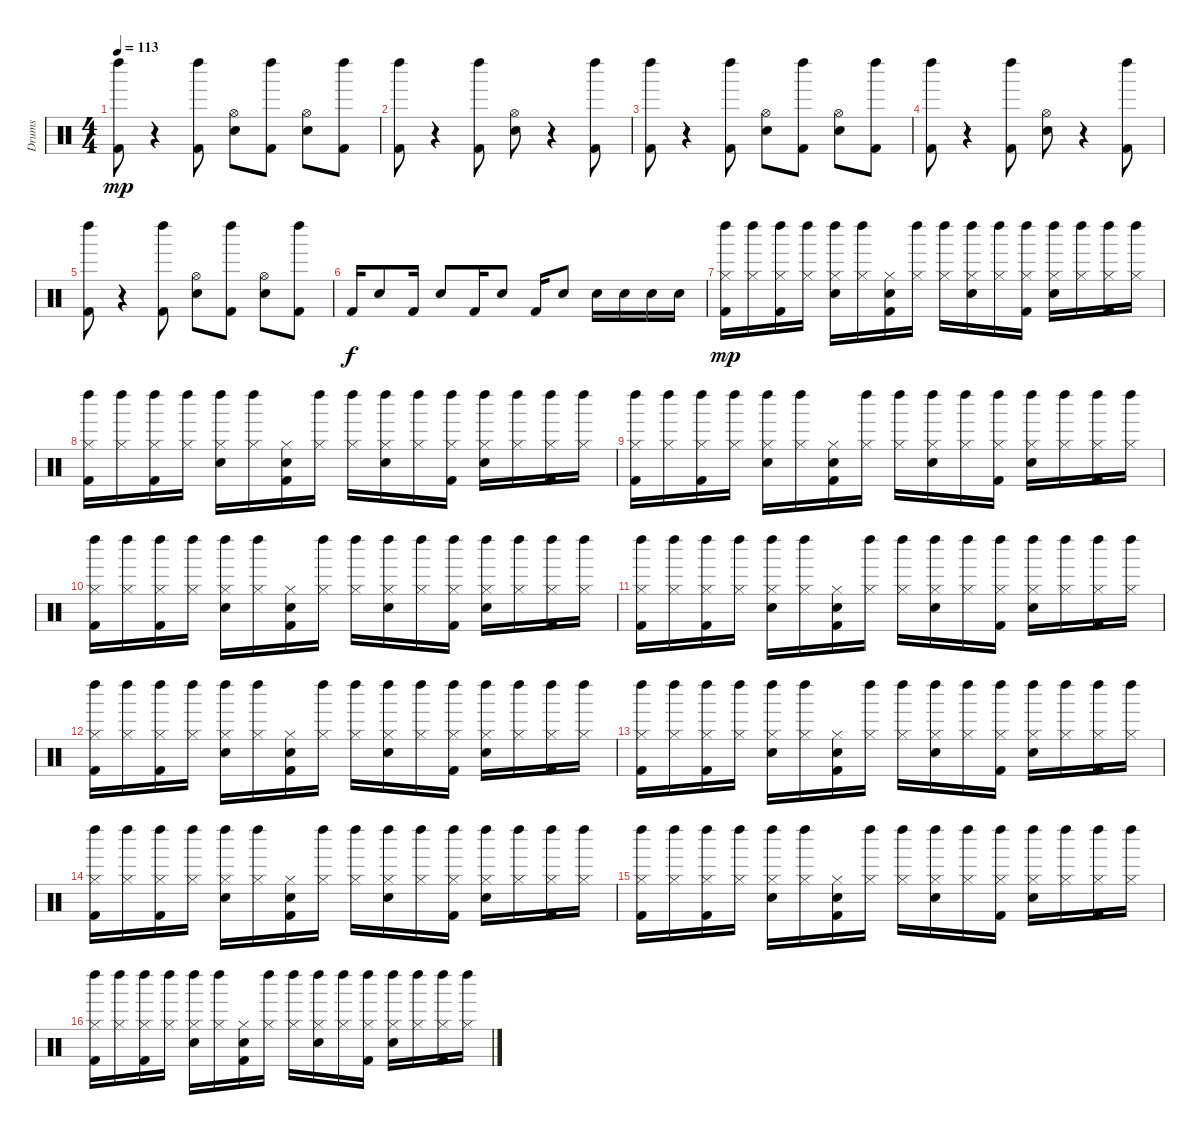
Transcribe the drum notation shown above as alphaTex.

\track ("Drums" "Drums") {instrument percussion}
\staff {score}
\articulation defaults
\ts (4 4)
\tempo 113
\clef neutral
\ks c
("Left Maraca (hit)" "Kick (hit) 2").8{dy mp} r.4 ("Left Maraca (hit)" "Kick (hit) 2").8 ("Hi-Hat (open)" "Snare (hit) 2").8 ("Left Maraca (hit)" "Kick (hit) 2").8 ("Hi-Hat (open)" "Snare (hit) 2").8 ("Left Maraca (hit)" "Kick (hit) 2").8 |
("Left Maraca (hit)" "Kick (hit) 2").8 r.4 ("Left Maraca (hit)" "Kick (hit) 2").8 ("Hi-Hat (open)" "Snare (hit) 2").8 r.4 ("Left Maraca (hit)" "Kick (hit) 2").8 |
("Left Maraca (hit)" "Kick (hit) 2").8 r.4 ("Left Maraca (hit)" "Kick (hit) 2").8 ("Hi-Hat (open)" "Snare (hit) 2").8 ("Left Maraca (hit)" "Kick (hit) 2").8 ("Hi-Hat (open)" "Snare (hit) 2").8 ("Left Maraca (hit)" "Kick (hit) 2").8 |
("Left Maraca (hit)" "Kick (hit) 2").8 r.4 ("Left Maraca (hit)" "Kick (hit) 2").8 ("Hi-Hat (open)" "Snare (hit) 2").8 r.4 ("Left Maraca (hit)" "Kick (hit) 2").8 |
("Left Maraca (hit)" "Kick (hit) 2").8 r.4 ("Left Maraca (hit)" "Kick (hit) 2").8 ("Hi-Hat (open)" "Snare (hit) 2").8 ("Left Maraca (hit)" "Kick (hit) 2").8 ("Hi-Hat (open)" "Snare (hit) 2").8 ("Left Maraca (hit)" "Kick (hit) 2").8 |
"Kick (hit) 2".16{dy f} "Snare (hit) 2".8 "Kick (hit) 2".16 "Snare (hit) 2".8 "Kick (hit) 2".16 "Snare (hit) 2".8 "Kick (hit) 2".16 "Snare (hit) 2".8 "Snare (hit) 2".16 "Snare (hit) 2".16 "Snare (hit) 2".16 "Snare (hit) 2".16 |
("Hi-Hat (closed)" "Left Maraca (hit)" "Kick (hit) 2").16{dy mp} ("Hi-Hat (closed)" "Left Maraca (hit)").16 ("Hi-Hat (closed)" "Left Maraca (hit)" "Kick (hit) 2").16 ("Hi-Hat (closed)" "Left Maraca (hit)").16 ("Hi-Hat (closed)" "Left Maraca (hit)" "Snare (hit) 2").16 ("Hi-Hat (closed)" "Left Maraca (hit)").16 ("Hi-Hat (closed)" "Snare (hit)" "Kick (hit) 2").16 ("Hi-Hat (closed)" "Left Maraca (hit)").16 ("Hi-Hat (closed)" "Left Maraca (hit)").16 ("Hi-Hat (closed)" "Left Maraca (hit)" "Snare (hit) 2").16 ("Hi-Hat (closed)" "Left Maraca (hit)").16 ("Hi-Hat (closed)" "Left Maraca (hit)" "Kick (hit) 2").16 ("Hi-Hat (closed)" "Left Maraca (hit)" "Snare (hit) 2").16 ("Hi-Hat (closed)" "Left Maraca (hit)").16 ("Hi-Hat (closed)" "Left Maraca (hit)" "Kick (hit) 2").16 ("Hi-Hat (closed)" "Left Maraca (hit)").16 |
("Hi-Hat (closed)" "Left Maraca (hit)" "Kick (hit) 2").16 ("Hi-Hat (closed)" "Left Maraca (hit)").16 ("Hi-Hat (closed)" "Left Maraca (hit)" "Kick (hit) 2").16 ("Hi-Hat (closed)" "Left Maraca (hit)").16 ("Hi-Hat (closed)" "Left Maraca (hit)" "Snare (hit) 2").16 ("Hi-Hat (closed)" "Left Maraca (hit)").16 ("Hi-Hat (closed)" "Snare (hit)" "Kick (hit) 2").16 ("Hi-Hat (closed)" "Left Maraca (hit)").16 ("Hi-Hat (closed)" "Left Maraca (hit)").16 ("Hi-Hat (closed)" "Left Maraca (hit)" "Snare (hit) 2").16 ("Hi-Hat (closed)" "Left Maraca (hit)").16 ("Hi-Hat (closed)" "Left Maraca (hit)" "Kick (hit) 2").16 ("Hi-Hat (closed)" "Left Maraca (hit)" "Snare (hit) 2").16 ("Hi-Hat (closed)" "Left Maraca (hit)").16 ("Hi-Hat (closed)" "Left Maraca (hit)" "Kick (hit) 2").16 ("Hi-Hat (closed)" "Left Maraca (hit)").16 |
("Hi-Hat (closed)" "Left Maraca (hit)" "Kick (hit) 2").16 ("Hi-Hat (closed)" "Left Maraca (hit)").16 ("Hi-Hat (closed)" "Left Maraca (hit)" "Kick (hit) 2").16 ("Hi-Hat (closed)" "Left Maraca (hit)").16 ("Hi-Hat (closed)" "Left Maraca (hit)" "Snare (hit) 2").16 ("Hi-Hat (closed)" "Left Maraca (hit)").16 ("Hi-Hat (closed)" "Snare (hit)" "Kick (hit) 2").16 ("Hi-Hat (closed)" "Left Maraca (hit)").16 ("Hi-Hat (closed)" "Left Maraca (hit)").16 ("Hi-Hat (closed)" "Left Maraca (hit)" "Snare (hit) 2").16 ("Hi-Hat (closed)" "Left Maraca (hit)").16 ("Hi-Hat (closed)" "Left Maraca (hit)" "Kick (hit) 2").16 ("Hi-Hat (closed)" "Left Maraca (hit)" "Snare (hit) 2").16 ("Hi-Hat (closed)" "Left Maraca (hit)").16 ("Hi-Hat (closed)" "Left Maraca (hit)" "Kick (hit) 2").16 ("Hi-Hat (closed)" "Left Maraca (hit)").16 |
("Hi-Hat (closed)" "Left Maraca (hit)" "Kick (hit) 2").16 ("Hi-Hat (closed)" "Left Maraca (hit)").16 ("Hi-Hat (closed)" "Left Maraca (hit)" "Kick (hit) 2").16 ("Hi-Hat (closed)" "Left Maraca (hit)").16 ("Hi-Hat (closed)" "Left Maraca (hit)" "Snare (hit) 2").16 ("Hi-Hat (closed)" "Left Maraca (hit)").16 ("Hi-Hat (closed)" "Snare (hit)" "Kick (hit) 2").16 ("Hi-Hat (closed)" "Left Maraca (hit)").16 ("Hi-Hat (closed)" "Left Maraca (hit)").16 ("Hi-Hat (closed)" "Left Maraca (hit)" "Snare (hit) 2").16 ("Hi-Hat (closed)" "Left Maraca (hit)").16 ("Hi-Hat (closed)" "Left Maraca (hit)" "Kick (hit) 2").16 ("Hi-Hat (closed)" "Left Maraca (hit)" "Snare (hit) 2").16 ("Hi-Hat (closed)" "Left Maraca (hit)").16 ("Hi-Hat (closed)" "Left Maraca (hit)" "Kick (hit) 2").16 ("Hi-Hat (closed)" "Left Maraca (hit)").16 |
("Hi-Hat (closed)" "Left Maraca (hit)" "Kick (hit) 2").16 ("Hi-Hat (closed)" "Left Maraca (hit)").16 ("Hi-Hat (closed)" "Left Maraca (hit)" "Kick (hit) 2").16 ("Hi-Hat (closed)" "Left Maraca (hit)").16 ("Hi-Hat (closed)" "Left Maraca (hit)" "Snare (hit) 2").16 ("Hi-Hat (closed)" "Left Maraca (hit)").16 ("Hi-Hat (closed)" "Snare (hit)" "Kick (hit) 2").16 ("Hi-Hat (closed)" "Left Maraca (hit)").16 ("Hi-Hat (closed)" "Left Maraca (hit)").16 ("Hi-Hat (closed)" "Left Maraca (hit)" "Snare (hit) 2").16 ("Hi-Hat (closed)" "Left Maraca (hit)").16 ("Hi-Hat (closed)" "Left Maraca (hit)" "Kick (hit) 2").16 ("Hi-Hat (closed)" "Left Maraca (hit)" "Snare (hit) 2").16 ("Hi-Hat (closed)" "Left Maraca (hit)").16 ("Hi-Hat (closed)" "Left Maraca (hit)" "Kick (hit) 2").16 ("Hi-Hat (closed)" "Left Maraca (hit)").16 |
("Hi-Hat (closed)" "Left Maraca (hit)" "Kick (hit) 2").16 ("Hi-Hat (closed)" "Left Maraca (hit)").16 ("Hi-Hat (closed)" "Left Maraca (hit)" "Kick (hit) 2").16 ("Hi-Hat (closed)" "Left Maraca (hit)").16 ("Hi-Hat (closed)" "Left Maraca (hit)" "Snare (hit) 2").16 ("Hi-Hat (closed)" "Left Maraca (hit)").16 ("Hi-Hat (closed)" "Snare (hit)" "Kick (hit) 2").16 ("Hi-Hat (closed)" "Left Maraca (hit)").16 ("Hi-Hat (closed)" "Left Maraca (hit)").16 ("Hi-Hat (closed)" "Left Maraca (hit)" "Snare (hit) 2").16 ("Hi-Hat (closed)" "Left Maraca (hit)").16 ("Hi-Hat (closed)" "Left Maraca (hit)" "Kick (hit) 2").16 ("Hi-Hat (closed)" "Left Maraca (hit)" "Snare (hit) 2").16 ("Hi-Hat (closed)" "Left Maraca (hit)").16 ("Hi-Hat (closed)" "Left Maraca (hit)" "Kick (hit) 2").16 ("Hi-Hat (closed)" "Left Maraca (hit)").16 |
("Hi-Hat (closed)" "Left Maraca (hit)" "Kick (hit) 2").16 ("Hi-Hat (closed)" "Left Maraca (hit)").16 ("Hi-Hat (closed)" "Left Maraca (hit)" "Kick (hit) 2").16 ("Hi-Hat (closed)" "Left Maraca (hit)").16 ("Hi-Hat (closed)" "Left Maraca (hit)" "Snare (hit) 2").16 ("Hi-Hat (closed)" "Left Maraca (hit)").16 ("Hi-Hat (closed)" "Snare (hit)" "Kick (hit) 2").16 ("Hi-Hat (closed)" "Left Maraca (hit)").16 ("Hi-Hat (closed)" "Left Maraca (hit)").16 ("Hi-Hat (closed)" "Left Maraca (hit)" "Snare (hit) 2").16 ("Hi-Hat (closed)" "Left Maraca (hit)").16 ("Hi-Hat (closed)" "Left Maraca (hit)" "Kick (hit) 2").16 ("Hi-Hat (closed)" "Left Maraca (hit)" "Snare (hit) 2").16 ("Hi-Hat (closed)" "Left Maraca (hit)").16 ("Hi-Hat (closed)" "Left Maraca (hit)" "Kick (hit) 2").16 ("Hi-Hat (closed)" "Left Maraca (hit)").16 |
("Hi-Hat (closed)" "Left Maraca (hit)" "Kick (hit) 2").16 ("Hi-Hat (closed)" "Left Maraca (hit)").16 ("Hi-Hat (closed)" "Left Maraca (hit)" "Kick (hit) 2").16 ("Hi-Hat (closed)" "Left Maraca (hit)").16 ("Hi-Hat (closed)" "Left Maraca (hit)" "Snare (hit) 2").16 ("Hi-Hat (closed)" "Left Maraca (hit)").16 ("Hi-Hat (closed)" "Snare (hit)" "Kick (hit) 2").16 ("Hi-Hat (closed)" "Left Maraca (hit)").16 ("Hi-Hat (closed)" "Left Maraca (hit)").16 ("Hi-Hat (closed)" "Left Maraca (hit)" "Snare (hit) 2").16 ("Hi-Hat (closed)" "Left Maraca (hit)").16 ("Hi-Hat (closed)" "Left Maraca (hit)" "Kick (hit) 2").16 ("Hi-Hat (closed)" "Left Maraca (hit)" "Snare (hit) 2").16 ("Hi-Hat (closed)" "Left Maraca (hit)").16 ("Hi-Hat (closed)" "Left Maraca (hit)" "Kick (hit) 2").16 ("Hi-Hat (closed)" "Left Maraca (hit)").16 |
("Hi-Hat (closed)" "Left Maraca (hit)" "Kick (hit) 2").16 ("Hi-Hat (closed)" "Left Maraca (hit)").16 ("Hi-Hat (closed)" "Left Maraca (hit)" "Kick (hit) 2").16 ("Hi-Hat (closed)" "Left Maraca (hit)").16 ("Hi-Hat (closed)" "Left Maraca (hit)" "Snare (hit) 2").16 ("Hi-Hat (closed)" "Left Maraca (hit)").16 ("Hi-Hat (closed)" "Snare (hit)" "Kick (hit) 2").16 ("Hi-Hat (closed)" "Left Maraca (hit)").16 ("Hi-Hat (closed)" "Left Maraca (hit)").16 ("Hi-Hat (closed)" "Left Maraca (hit)" "Snare (hit) 2").16 ("Hi-Hat (closed)" "Left Maraca (hit)").16 ("Hi-Hat (closed)" "Left Maraca (hit)" "Kick (hit) 2").16 ("Hi-Hat (closed)" "Left Maraca (hit)" "Snare (hit) 2").16 ("Hi-Hat (closed)" "Left Maraca (hit)").16 ("Hi-Hat (closed)" "Left Maraca (hit)" "Kick (hit) 2").16 ("Hi-Hat (closed)" "Left Maraca (hit)").16 |
("Hi-Hat (closed)" "Left Maraca (hit)" "Kick (hit) 2").16 ("Hi-Hat (closed)" "Left Maraca (hit)").16 ("Hi-Hat (closed)" "Left Maraca (hit)" "Kick (hit) 2").16 ("Hi-Hat (closed)" "Left Maraca (hit)").16 ("Hi-Hat (closed)" "Left Maraca (hit)" "Snare (hit) 2").16 ("Hi-Hat (closed)" "Left Maraca (hit)").16 ("Hi-Hat (closed)" "Snare (hit)" "Kick (hit) 2").16 ("Hi-Hat (closed)" "Left Maraca (hit)").16 ("Hi-Hat (closed)" "Left Maraca (hit)").16 ("Hi-Hat (closed)" "Left Maraca (hit)" "Snare (hit) 2").16 ("Hi-Hat (closed)" "Left Maraca (hit)").16 ("Hi-Hat (closed)" "Left Maraca (hit)" "Kick (hit) 2").16 ("Hi-Hat (closed)" "Left Maraca (hit)" "Snare (hit) 2").16 ("Hi-Hat (closed)" "Left Maraca (hit)").16 ("Hi-Hat (closed)" "Left Maraca (hit)" "Kick (hit) 2").16 ("Hi-Hat (closed)" "Left Maraca (hit)").16
